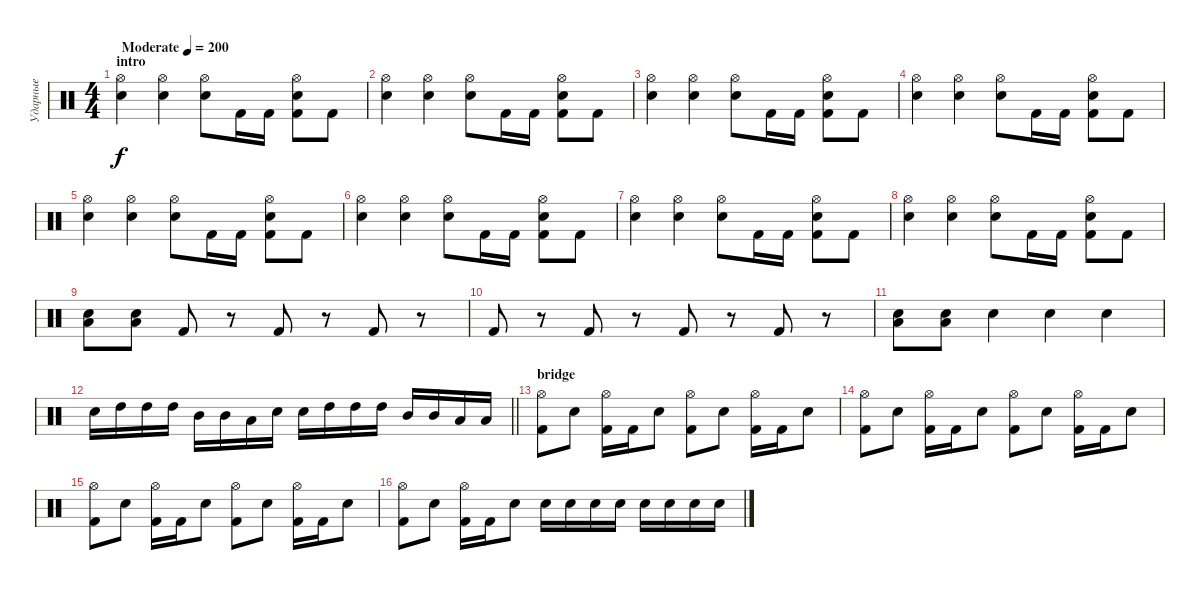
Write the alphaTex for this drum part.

\track ("Ударные" "Ударные") {instrument percussion}
\staff {score}
\articulation defaults
\ts (4 4)
\section ("" "intro")
\tempo (200 "Moderate")
\clef neutral
\ks c
("Hi-Hat (open)" "Electric Snare (hit)").4{dy f volume 14} ("Hi-Hat (open)" "Electric Snare (hit)").4 ("Hi-Hat (open)" "Electric Snare (hit)").8 "Kick (hit) 2".16 "Kick (hit) 2".16 ("Hi-Hat (open)" "Electric Snare (hit)" "Kick (hit) 2").8 "Kick (hit) 2".8 |
("Hi-Hat (open)" "Electric Snare (hit)").4 ("Hi-Hat (open)" "Electric Snare (hit)").4 ("Hi-Hat (open)" "Electric Snare (hit)").8 "Kick (hit) 2".16 "Kick (hit) 2".16 ("Hi-Hat (open)" "Electric Snare (hit)" "Kick (hit) 2").8 "Kick (hit) 2".8 |
("Hi-Hat (open)" "Electric Snare (hit)").4 ("Hi-Hat (open)" "Electric Snare (hit)").4 ("Hi-Hat (open)" "Electric Snare (hit)").8 "Kick (hit) 2".16 "Kick (hit) 2".16 ("Hi-Hat (open)" "Electric Snare (hit)" "Kick (hit) 2").8 "Kick (hit) 2".8 |
("Hi-Hat (open)" "Electric Snare (hit)").4 ("Hi-Hat (open)" "Electric Snare (hit)").4 ("Hi-Hat (open)" "Electric Snare (hit)").8 "Kick (hit) 2".16 "Kick (hit) 2".16 ("Hi-Hat (open)" "Electric Snare (hit)" "Kick (hit) 2").8 "Kick (hit) 2".8 |
("Hi-Hat (open)" "Electric Snare (hit)").4 ("Hi-Hat (open)" "Electric Snare (hit)").4 ("Hi-Hat (open)" "Electric Snare (hit)").8 "Kick (hit) 2".16 "Kick (hit) 2".16 ("Hi-Hat (open)" "Electric Snare (hit)" "Kick (hit) 2").8 "Kick (hit) 2".8 |
("Hi-Hat (open)" "Electric Snare (hit)").4 ("Hi-Hat (open)" "Electric Snare (hit)").4 ("Hi-Hat (open)" "Electric Snare (hit)").8 "Kick (hit) 2".16 "Kick (hit) 2".16 ("Hi-Hat (open)" "Electric Snare (hit)" "Kick (hit) 2").8 "Kick (hit) 2".8 |
("Hi-Hat (open)" "Electric Snare (hit)").4 ("Hi-Hat (open)" "Electric Snare (hit)").4 ("Hi-Hat (open)" "Electric Snare (hit)").8 "Kick (hit) 2".16 "Kick (hit) 2".16 ("Hi-Hat (open)" "Electric Snare (hit)" "Kick (hit) 2").8 "Kick (hit) 2".8 |
("Hi-Hat (open)" "Electric Snare (hit)").4 ("Hi-Hat (open)" "Electric Snare (hit)").4 ("Hi-Hat (open)" "Electric Snare (hit)").8 "Kick (hit) 2".16 "Kick (hit) 2".16 ("Hi-Hat (open)" "Electric Snare (hit)" "Kick (hit) 2").8 "Kick (hit) 2".8 |
("Electric Snare (hit)" "Low Tom (hit)").8 ("Electric Snare (hit)" "Low Tom (hit)").8 "Kick (hit) 2".8 r.8 "Kick (hit) 2".8 r.8 "Kick (hit) 2".8 r.8 |
"Kick (hit) 2".8 r.8 "Kick (hit) 2".8 r.8 "Kick (hit) 2".8 r.8 "Kick (hit) 2".8 r.8 |
("Electric Snare (hit)" "Low Tom (hit)").8 ("Electric Snare (hit)" "Low Tom (hit)").8 "Hand Clap (hit)".4 "Hand Clap (hit)".4 "Hand Clap (hit)".4 |
\barLineRight lightlight "Electric Snare (hit)".16 "High Tom (hit)".16 "High Tom (hit)".16 "High Tom (hit)".16 "Mid Tom (hit)".16 "Mid Tom (hit)".16 "Low Tom (hit)".16 "Electric Snare (hit)".16 "Electric Snare (hit)".16 "High Tom (hit)".16 "High Tom (hit)".16 "High Tom (hit)".16 "Mid Tom (hit)".16 "Mid Tom (hit)".16 "Low Tom (hit)".16 "Low Tom (hit)".16
|
\section ("" "bridge")
("Hi-Hat (open)" "Kick (hit) 2").8 "Electric Snare (hit)".8 ("Hi-Hat (open)" "Kick (hit) 2").16 "Kick (hit) 2".16 "Electric Snare (hit)".8 ("Hi-Hat (open)" "Kick (hit) 2").8 "Electric Snare (hit)".8 ("Hi-Hat (open)" "Kick (hit) 2").16 "Kick (hit) 2".16 "Electric Snare (hit)".8 |
("Hi-Hat (open)" "Kick (hit) 2").8 "Electric Snare (hit)".8 ("Hi-Hat (open)" "Kick (hit) 2").16 "Kick (hit) 2".16 "Electric Snare (hit)".8 ("Hi-Hat (open)" "Kick (hit) 2").8 "Electric Snare (hit)".8 ("Hi-Hat (open)" "Kick (hit) 2").16 "Kick (hit) 2".16 "Electric Snare (hit)".8 |
("Hi-Hat (open)" "Kick (hit) 2").8 "Electric Snare (hit)".8 ("Hi-Hat (open)" "Kick (hit) 2").16 "Kick (hit) 2".16 "Electric Snare (hit)".8 ("Hi-Hat (open)" "Kick (hit) 2").8 "Electric Snare (hit)".8 ("Hi-Hat (open)" "Kick (hit) 2").16 "Kick (hit) 2".16 "Electric Snare (hit)".8 |
("Hi-Hat (open)" "Kick (hit) 2").8 "Electric Snare (hit)".8 ("Hi-Hat (open)" "Kick (hit) 2").16 "Kick (hit) 2".16 "Electric Snare (hit)".8 "Electric Snare (hit)".16 "Electric Snare (hit)".16 "Electric Snare (hit)".16 "Electric Snare (hit)".16 "Electric Snare (hit)".16 "Electric Snare (hit)".16 "Electric Snare (hit)".16 "Electric Snare (hit)".16
